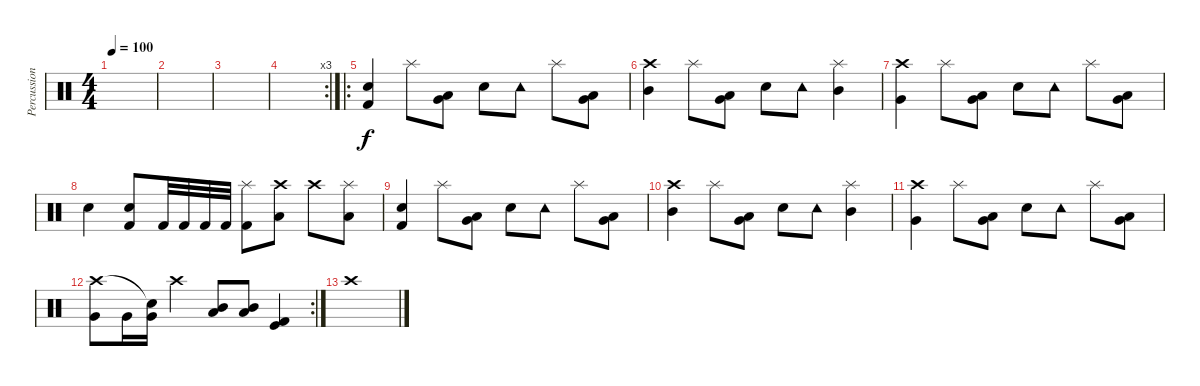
\track ("Percussions" "Percussion") {instrument percussion}
\staff {score}
\articulation defaults
\ts (4 4)
\tempo 100
\clef neutral
\ks c
|
|
|
\rc 3
|
\ro
("Electric Snare (hit)" "Kick (hit) 2").4 "Splash (hit)".8 ("Low Tom (hit)" "Very Low Tom (hit)").8 "Electric Snare (hit)".8 "Tambourine (hit)".8 "Splash (hit)".8 ("Low Tom (hit)" "Very Low Tom (hit)").8 |
("Crash high (hit)" "Mid Tom (hit)").4 "Splash (hit)".8 ("Low Tom (hit)" "Very Low Tom (hit)").8 "Electric Snare (hit)".8 "Tambourine (hit)".8 ("Mid Tom (hit)" "Splash (hit)").4 |
("Very Low Tom (hit)" "Crash high (hit)").4 "Splash (hit)".8 ("Low Tom (hit)" "Very Low Tom (hit)").8 "Electric Snare (hit)".8 "Tambourine (hit)".8 "Splash (hit)".8 ("Low Tom (hit)" "Very Low Tom (hit)").8 |
"Electric Snare (hit)".4 ("Electric Snare (hit)" "Kick (hit) 2").8 "Kick (hit) 2".32 "Kick (hit) 2".32 "Kick (hit) 2".32 "Kick (hit) 2".32 ("Kick (hit) 2" "Splash (hit)").8 ("Crash high (hit)" "Low Tom (hit)").8 "Crash high (hit)".8 ("Low Tom (hit)" "Splash (hit)").8 |
("Electric Snare (hit)" "Kick (hit) 2").4 "Splash (hit)".8 ("Low Tom (hit)" "Very Low Tom (hit)").8 "Electric Snare (hit)".8 "Tambourine (hit)".8 "Splash (hit)".8 ("Low Tom (hit)" "Very Low Tom (hit)").8 |
("Crash high (hit)" "Mid Tom (hit)").4 "Splash (hit)".8 ("Low Tom (hit)" "Very Low Tom (hit)").8 "Electric Snare (hit)".8 "Tambourine (hit)".8 ("Mid Tom (hit)" "Splash (hit)").4 |
("Very Low Tom (hit)" "Crash high (hit)").4 "Splash (hit)".8 ("Low Tom (hit)" "Very Low Tom (hit)").8 "Electric Snare (hit)".8 "Tambourine (hit)".8 "Splash (hit)".8 ("Low Tom (hit)" "Very Low Tom (hit)").8 |
\rc 2
("Very Low Tom (hit)" "Crash high (hit)").8 "Very Low Tom (hit)".16 ("Very Low Tom (hit)" "Snare (hit)"{t}).16 "Crash high (hit)".4 ("Mid Tom (hit)" "Low Floor Tom (hit)").8 ("Mid Tom (hit)" "Low Tom (hit)").8 ("Kick (hit) 2" "Kick (hit)").4 |
"Crash high (hit)".1
